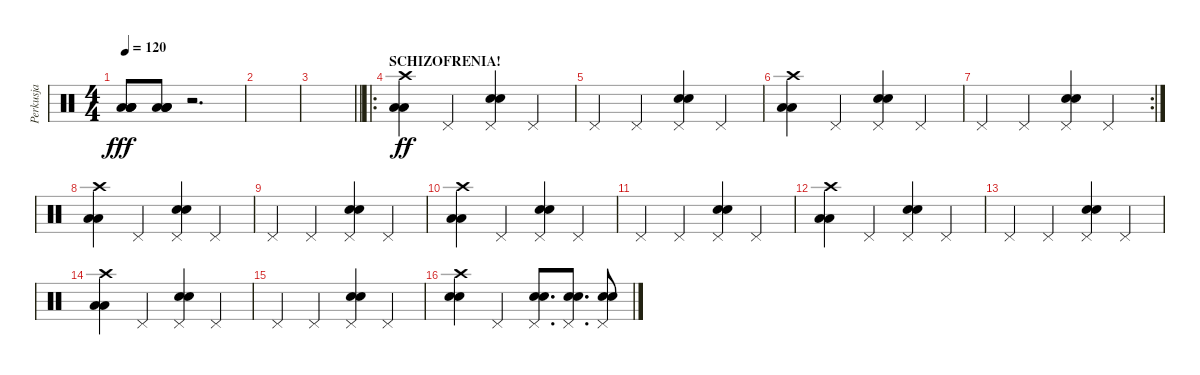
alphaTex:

\track ("Perkusja" "Perkusja") {instrument percussion}
\staff {score}
\articulation defaults
\ts (4 4)
\tempo 120
\clef neutral
\ks c
("Low Tom (hit)" "Low Tom (hit)" "Low Tom (hit)" "Low Tom (hit)").8{dy fff} ("Low Tom (hit)" "Low Tom (hit)" "Low Tom (hit)" "Low Tom (hit)").8 r.2{d} |
|
\barLineRight lightlight
|
\ro
\section ("" "SCHIZOFRENIA!")
("Low Tom (hit)" "Low Tom (hit)" "Crash high (hit)").4{dy ff} "Pedal Hi-Hat (hit)".4 ("Pedal Hi-Hat (hit)" "Snare (hit) 2" "Snare (hit) 2").4 "Pedal Hi-Hat (hit)".4 |
"Pedal Hi-Hat (hit)".4 "Pedal Hi-Hat (hit)".4 ("Pedal Hi-Hat (hit)" "Snare (hit) 2" "Snare (hit) 2").4 "Pedal Hi-Hat (hit)".4 |
("Low Tom (hit)" "Low Tom (hit)" "Crash high (hit)").4 "Pedal Hi-Hat (hit)".4 ("Pedal Hi-Hat (hit)" "Snare (hit) 2" "Snare (hit) 2").4 "Pedal Hi-Hat (hit)".4 |
\rc 2 "Pedal Hi-Hat (hit)".4 "Pedal Hi-Hat (hit)".4
("Pedal Hi-Hat (hit)" "Snare (hit) 2" "Snare (hit) 2").4 "Pedal Hi-Hat (hit)".4 |
("Low Tom (hit)" "Low Tom (hit)" "Crash high (hit)").4 "Pedal Hi-Hat (hit)".4 ("Pedal Hi-Hat (hit)" "Snare (hit) 2" "Snare (hit) 2").4 "Pedal Hi-Hat (hit)".4 |
"Pedal Hi-Hat (hit)".4 "Pedal Hi-Hat (hit)".4 ("Pedal Hi-Hat (hit)" "Snare (hit) 2" "Snare (hit) 2").4 "Pedal Hi-Hat (hit)".4 |
("Low Tom (hit)" "Low Tom (hit)" "Crash high (hit)").4 "Pedal Hi-Hat (hit)".4 ("Pedal Hi-Hat (hit)" "Snare (hit) 2" "Snare (hit) 2").4 "Pedal Hi-Hat (hit)".4 |
"Pedal Hi-Hat (hit)".4 "Pedal Hi-Hat (hit)".4 ("Pedal Hi-Hat (hit)" "Snare (hit) 2" "Snare (hit) 2").4 "Pedal Hi-Hat (hit)".4 |
("Low Tom (hit)" "Low Tom (hit)" "Crash high (hit)").4 "Pedal Hi-Hat (hit)".4 ("Pedal Hi-Hat (hit)" "Snare (hit) 2" "Snare (hit) 2").4 "Pedal Hi-Hat (hit)".4 |
"Pedal Hi-Hat (hit)".4 "Pedal Hi-Hat (hit)".4 ("Pedal Hi-Hat (hit)" "Snare (hit) 2" "Snare (hit) 2").4 "Pedal Hi-Hat (hit)".4 |
("Low Tom (hit)" "Low Tom (hit)" "Crash high (hit)").4 "Pedal Hi-Hat (hit)".4 ("Pedal Hi-Hat (hit)" "Snare (hit) 2" "Snare (hit) 2").4 "Pedal Hi-Hat (hit)".4 |
"Pedal Hi-Hat (hit)".4 "Pedal Hi-Hat (hit)".4 ("Pedal Hi-Hat (hit)" "Snare (hit) 2" "Snare (hit) 2").4 "Pedal Hi-Hat (hit)".4 |
("Crash high (hit)" "Snare (hit) 2" "Snare (hit) 2").4 "Pedal Hi-Hat (hit)".4 ("Pedal Hi-Hat (hit)" "Snare (hit) 2" "Snare (hit) 2").8{d} ("Pedal Hi-Hat (hit)" "Snare (hit) 2" "Snare (hit) 2").8{d} ("Pedal Hi-Hat (hit)" "Snare (hit) 2" "Snare (hit) 2").8
